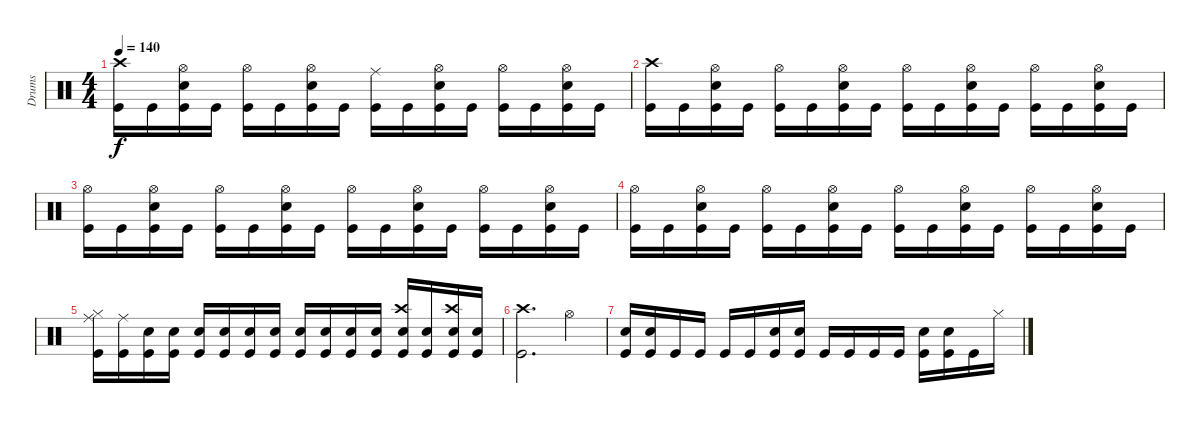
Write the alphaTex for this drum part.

\track ("Drums" "Drums") {instrument percussion}
\staff {score}
\articulation defaults
\ts (4 4)
\tempo 140
\clef neutral
\ks c
("Kick (hit)" "Crash high (hit)").16{dy f} "Kick (hit)".16 ("Kick (hit)" "Snare (hit) 2" "Hi-Hat (open)").16 "Kick (hit)".16 ("Kick (hit)" "Hi-Hat (open)").16 "Kick (hit)".16 ("Kick (hit)" "Snare (hit) 2" "Hi-Hat (open)").16 "Kick (hit)".16 ("Kick (hit)" "Ride (middle)").16 "Kick (hit)".16 ("Kick (hit)" "Snare (hit) 2" "Hi-Hat (open)").16 "Kick (hit)".16 ("Kick (hit)" "Hi-Hat (open)").16 "Kick (hit)".16 ("Kick (hit)" "Snare (hit) 2" "Hi-Hat (open)").16 "Kick (hit)".16 |
("Kick (hit)" "Crash high (hit)").16 "Kick (hit)".16 ("Kick (hit)" "Snare (hit) 2" "Hi-Hat (open)").16 "Kick (hit)".16 ("Kick (hit)" "Hi-Hat (open)").16 "Kick (hit)".16 ("Kick (hit)" "Snare (hit) 2" "Hi-Hat (open)").16 "Kick (hit)".16 ("Kick (hit)" "Hi-Hat (open)").16 "Kick (hit)".16 ("Kick (hit)" "Snare (hit) 2" "Hi-Hat (open)").16 "Kick (hit)".16 ("Kick (hit)" "Hi-Hat (open)").16 "Kick (hit)".16 ("Kick (hit)" "Snare (hit) 2" "Hi-Hat (open)").16 "Kick (hit)".16 |
("Kick (hit)" "Hi-Hat (open)").16 "Kick (hit)".16 ("Kick (hit)" "Snare (hit) 2" "Hi-Hat (open)").16 "Kick (hit)".16 ("Kick (hit)" "Hi-Hat (open)").16 "Kick (hit)".16 ("Kick (hit)" "Snare (hit) 2" "Hi-Hat (open)").16 "Kick (hit)".16 ("Kick (hit)" "Hi-Hat (open)").16 "Kick (hit)".16 ("Kick (hit)" "Snare (hit) 2" "Hi-Hat (open)").16 "Kick (hit)".16 ("Kick (hit)" "Hi-Hat (open)").16 "Kick (hit)".16 ("Kick (hit)" "Snare (hit) 2" "Hi-Hat (open)").16 "Kick (hit)".16 |
("Kick (hit)" "Hi-Hat (open)").16 "Kick (hit)".16 ("Kick (hit)" "Snare (hit) 2" "Hi-Hat (open)").16 "Kick (hit)".16 ("Kick (hit)" "Hi-Hat (open)").16 "Kick (hit)".16 ("Kick (hit)" "Snare (hit) 2" "Hi-Hat (open)").16 "Kick (hit)".16 ("Kick (hit)" "Hi-Hat (open)").16 "Kick (hit)".16 ("Kick (hit)" "Snare (hit) 2" "Hi-Hat (open)").16 "Kick (hit)".16 ("Kick (hit)" "Hi-Hat (open)").16 "Kick (hit)".16 ("Kick (hit)" "Snare (hit) 2" "Hi-Hat (open)").16 "Kick (hit)".16 |
("Kick (hit)" "Hi-Hat (closed)" "Ride (middle)").16 ("Kick (hit)" "Ride (middle)").16{volume 4} ("Kick (hit)" "Snare (hit) 2").16{volume 13} ("Kick (hit)" "Snare (hit) 2").16 ("Snare (hit) 2" "Kick (hit)").16 ("Snare (hit) 2" "Kick (hit)").16 ("Kick (hit)" "Snare (hit) 2").16 ("Kick (hit)" "Snare (hit) 2").16 ("Kick (hit)" "Snare (hit) 2").16 ("Snare (hit) 2" "Kick (hit)").16 ("Snare (hit) 2" "Kick (hit)").16 ("Kick (hit)" "Snare (hit) 2").16 ("Kick (hit)" "Snare (hit) 2" "Crash high (hit)").16 ("Kick (hit)" "Snare (hit) 2").16 ("Kick (hit)" "Snare (hit) 2" "Crash high (hit)").16 ("Kick (hit)" "Snare (hit) 2").16 |
("Kick (hit)" "Crash high (hit)").2{d} "Hi-Hat (open)".4 |
("Snare (hit) 2" "Kick (hit)").16 ("Kick (hit)" "Snare (hit) 2").16 "Kick (hit)".16 "Kick (hit)".16 "Kick (hit)".16 "Kick (hit)".16 ("Kick (hit)" "Snare (hit) 2").16 ("Snare (hit) 2" "Kick (hit)").16 "Kick (hit)".16 "Kick (hit)".16 "Kick (hit)".16 "Kick (hit)".16 ("Snare (hit) 2" "Kick (hit)").16 ("Kick (hit)" "Snare (hit) 2").16 "Kick (hit)".16 "Hi-Hat (closed)".16
